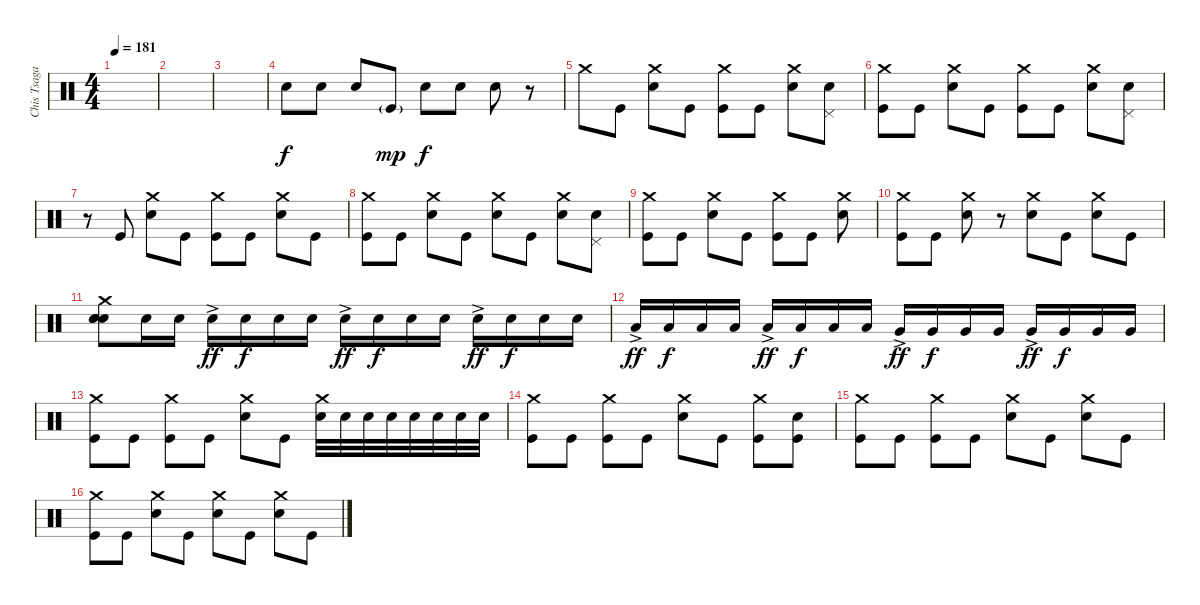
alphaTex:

\track ("Chis Tsagakis" "Chis Tsaga") {instrument percussion}
\staff {score}
\articulation defaults
\ts (4 4)
\tempo 181
\clef neutral
\ks c
|
|
|
"Electric Snare (hit)".8 "Electric Snare (hit)".8 "Electric Snare (hit)".8 "Kick (hit)"{g}.8{dy mp} "Electric Snare (hit)".8{dy f} "Electric Snare (hit)".8 "Electric Snare (hit)".8 r.8 |
"Crash medium (hit)".8 "Kick (hit)".8 ("Crash medium (hit)" "Electric Snare (hit)").8 "Kick (hit)".8 ("Crash medium (hit)" "Kick (hit)").8 "Kick (hit)".8 ("Crash medium (hit)" "Electric Snare (hit)").8 ("Pedal Hi-Hat (hit)" "Electric Snare (hit)").8 |
("Crash medium (hit)" "Kick (hit)").8 "Kick (hit)".8 ("Crash medium (hit)" "Electric Snare (hit)").8 "Kick (hit)".8 ("Crash medium (hit)" "Kick (hit)").8 "Kick (hit)".8 ("Crash medium (hit)" "Electric Snare (hit)").8 ("Pedal Hi-Hat (hit)" "Electric Snare (hit)").8 |
r.8 "Kick (hit)".8 ("Crash medium (hit)" "Electric Snare (hit)").8 "Kick (hit)".8 ("Crash medium (hit)" "Kick (hit)").8 "Kick (hit)".8 ("Crash medium (hit)" "Electric Snare (hit)").8 "Kick (hit)".8 |
("Crash medium (hit)" "Kick (hit)").8 "Kick (hit)".8 ("Crash medium (hit)" "Electric Snare (hit)").8 "Kick (hit)".8 ("Crash medium (hit)" "Electric Snare (hit)").8 "Kick (hit)".8 ("Crash medium (hit)" "Electric Snare (hit)").8 ("Pedal Hi-Hat (hit)" "Electric Snare (hit)").8 |
("Crash medium (hit)" "Kick (hit)").8 "Kick (hit)".8 ("Crash medium (hit)" "Electric Snare (hit)").8 "Kick (hit)".8 ("Crash medium (hit)" "Kick (hit)").8 "Kick (hit)".8 ("Crash medium (hit)" "Electric Snare (hit)").8 |
("Crash medium (hit)" "Kick (hit)").8 "Kick (hit)".8 ("Crash medium (hit)" "Electric Snare (hit)").8 r.8 ("Crash medium (hit)" "Electric Snare (hit)").8 "Kick (hit)".8 ("Crash medium (hit)" "Electric Snare (hit)").8 "Kick (hit)".8 |
("Crash medium (hit)" "Electric Snare (hit)" "Electric Snare (hit)" "Electric Snare (hit)").8 "Electric Snare (hit)".16{volume 3} "Electric Snare (hit)".16{volume 13} "Electric Snare (hit)"{ac}.16{dy ff} "Electric Snare (hit)".16{dy f} "Electric Snare (hit)".16 "Electric Snare (hit)".16 "Electric Snare (hit)"{ac}.16{dy ff} "Electric Snare (hit)".16{dy f} "Electric Snare (hit)".16 "Electric Snare (hit)".16 "Electric Snare (hit)"{ac}.16{dy ff} "Electric Snare (hit)".16{dy f} "Electric Snare (hit)".16 "Electric Snare (hit)".16 |
"Low Tom (hit)"{ac}.16{dy ff} "Low Tom (hit)".16{dy f} "Low Tom (hit)".16 "Low Tom (hit)".16 "Low Tom (hit)"{ac}.16{dy ff} "Low Tom (hit)".16{dy f} "Low Tom (hit)".16 "Low Tom (hit)".16 "Very Low Tom (hit)"{ac}.16{dy ff} "Very Low Tom (hit)".16{dy f} "Very Low Tom (hit)".16 "Very Low Tom (hit)".16 "Very Low Tom (hit)"{ac}.16{dy ff} "Very Low Tom (hit)".16{dy f} "Very Low Tom (hit)".16 "Very Low Tom (hit)".16 |
("Crash medium (hit)" "Kick (hit)").8 "Kick (hit)".8 ("Crash medium (hit)" "Kick (hit)").8 "Kick (hit)".8 ("Crash medium (hit)" "Electric Snare (hit)").8 "Kick (hit)".8 ("Crash medium (hit)" "Electric Snare (hit)").32{volume 3} "Electric Snare (hit)".32{volume 13} "Electric Snare (hit)".32 "Electric Snare (hit)".32 "Electric Snare (hit)".32 "Electric Snare (hit)".32 "Electric Snare (hit)".32 "Electric Snare (hit)".32 |
("Crash medium (hit)" "Kick (hit)").8 "Kick (hit)".8 ("Crash medium (hit)" "Kick (hit)").8 "Kick (hit)".8 ("Crash medium (hit)" "Electric Snare (hit)").8 "Kick (hit)".8 ("Crash medium (hit)" "Kick (hit)").8 ("Electric Snare (hit)" "Kick (hit)").8 |
("Crash medium (hit)" "Kick (hit)").8 "Kick (hit)".8 ("Crash medium (hit)" "Kick (hit)").8 "Kick (hit)".8 ("Crash medium (hit)" "Electric Snare (hit)").8 "Kick (hit)".8 ("Crash medium (hit)" "Electric Snare (hit)").8 "Kick (hit)".8 |
("Crash medium (hit)" "Kick (hit)").8 "Kick (hit)".8 ("Crash medium (hit)" "Electric Snare (hit)").8 "Kick (hit)".8 ("Crash medium (hit)" "Electric Snare (hit)").8 "Kick (hit)".8 ("Crash medium (hit)" "Electric Snare (hit)").8 "Kick (hit)".8
